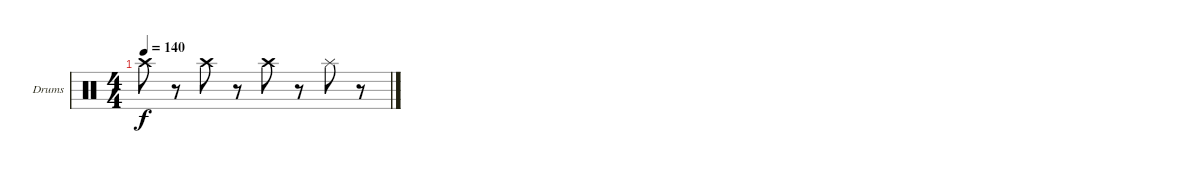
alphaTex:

\defaultSystemsLayout 4
\bracketExtendMode groupsimilarinstruments
\firstSystemTrackNameOrientation horizontal
\otherSystemsTrackNameOrientation horizontal
\track ("Drumkit" "Drums") {instrument percussion}
\staff {score}
\articulation defaults
\ts (4 4)
\tempo 140
\clef neutral
\ks c "Crash high (hit)".8{dy f}
r.8 "Crash high (hit)".8 r.8 "Crash high (hit)".8 r.8 "Splash (hit)".8 r.8
